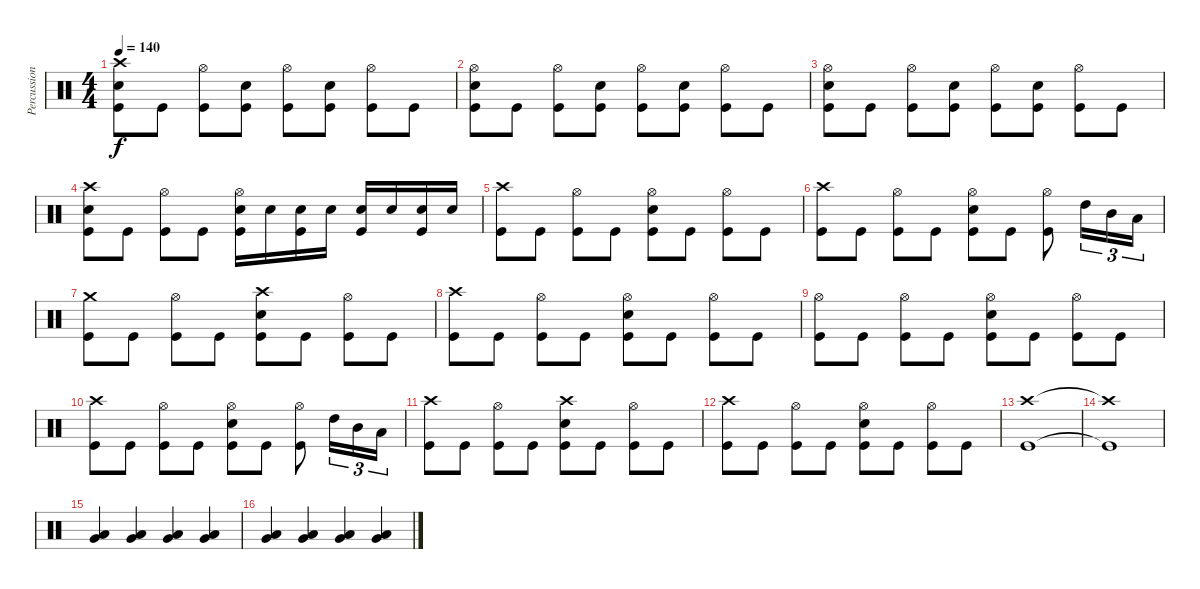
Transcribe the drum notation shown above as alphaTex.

\track ("Percussion" "Percussion") {instrument percussion}
\staff {score}
\articulation defaults
\ts (4 4)
\tempo 140
\clef neutral
\ks c
("Crash high (hit)" "Snare (hit) 2" "Kick (hit)").8{dy f} "Kick (hit)".8 ("Hi-Hat (open)" "Kick (hit)").8 ("Snare (hit) 2" "Kick (hit)").8 ("Hi-Hat (open)" "Kick (hit)").8 ("Snare (hit) 2" "Kick (hit)").8 ("Hi-Hat (open)" "Kick (hit)").8 "Kick (hit)".8 |
("Hi-Hat (open)" "Snare (hit) 2" "Kick (hit)").8 "Kick (hit)".8 ("Hi-Hat (open)" "Kick (hit)").8 ("Snare (hit) 2" "Kick (hit)").8 ("Hi-Hat (open)" "Kick (hit)").8 ("Snare (hit) 2" "Kick (hit)").8 ("Hi-Hat (open)" "Kick (hit)").8 "Kick (hit)".8 |
("Hi-Hat (open)" "Snare (hit) 2" "Kick (hit)").8 "Kick (hit)".8 ("Hi-Hat (open)" "Kick (hit)").8 ("Snare (hit) 2" "Kick (hit)").8 ("Hi-Hat (open)" "Kick (hit)").8 ("Snare (hit) 2" "Kick (hit)").8 ("Hi-Hat (open)" "Kick (hit)").8 "Kick (hit)".8 |
("Crash high (hit)" "Snare (hit) 2" "Kick (hit)").8 "Kick (hit)".8 ("Hi-Hat (open)" "Kick (hit)").8 "Kick (hit)".8 ("Hi-Hat (open)" "Snare (hit) 2" "Kick (hit)").16 "Snare (hit) 2".16 ("Snare (hit) 2" "Kick (hit)").16 "Snare (hit) 2".16 ("Snare (hit) 2" "Kick (hit)").16 "Snare (hit) 2".16 ("Snare (hit) 2" "Kick (hit)").16 "Snare (hit) 2".16 |
("Crash high (hit)" "Kick (hit)").8 "Kick (hit)".8 ("Hi-Hat (open)" "Kick (hit)").8 "Kick (hit)".8 ("Hi-Hat (open)" "Snare (hit) 2" "Kick (hit)").8 "Kick (hit)".8 ("Hi-Hat (open)" "Kick (hit)").8 "Kick (hit)".8 |
("Crash high (hit)" "Kick (hit)").8 "Kick (hit)".8 ("Hi-Hat (open)" "Kick (hit)").8 "Kick (hit)".8 ("Hi-Hat (open)" "Snare (hit) 2" "Kick (hit)").8 "Kick (hit)".8 ("Hi-Hat (open)" "Kick (hit)").8 "High Tom (hit)".16{tu (3 2)} "Mid Tom (hit)".16{tu (3 2)} "Low Tom (hit)".16{tu (3 2)} |
("Crash medium (hit)" "Kick (hit)").8 "Kick (hit)".8 ("Hi-Hat (open)" "Kick (hit)").8 "Kick (hit)".8 ("Crash high (hit)" "Snare (hit) 2" "Kick (hit)").8 "Kick (hit)".8 ("Hi-Hat (open)" "Kick (hit)").8 "Kick (hit)".8 |
("Crash high (hit)" "Kick (hit)").8 "Kick (hit)".8 ("Hi-Hat (open)" "Kick (hit)").8 "Kick (hit)".8 ("Hi-Hat (open)" "Snare (hit) 2" "Kick (hit)").8 "Kick (hit)".8 ("Hi-Hat (open)" "Kick (hit)").8 "Kick (hit)".8 |
("Hi-Hat (open)" "Kick (hit)").8 "Kick (hit)".8 ("Hi-Hat (open)" "Kick (hit)").8 "Kick (hit)".8 ("Hi-Hat (open)" "Snare (hit) 2" "Kick (hit)").8 "Kick (hit)".8 ("Hi-Hat (open)" "Kick (hit)").8 "Kick (hit)".8 |
("Crash high (hit)" "Kick (hit)").8 "Kick (hit)".8 ("Hi-Hat (open)" "Kick (hit)").8 "Kick (hit)".8 ("Hi-Hat (open)" "Snare (hit) 2" "Kick (hit)").8 "Kick (hit)".8 ("Hi-Hat (open)" "Kick (hit)").8 "High Tom (hit)".16{tu (3 2)} "Mid Tom (hit)".16{tu (3 2)} "Low Tom (hit)".16{tu (3 2)} |
("Crash high (hit)" "Kick (hit)").8 "Kick (hit)".8 ("Hi-Hat (open)" "Kick (hit)").8 "Kick (hit)".8 ("Crash high (hit)" "Snare (hit) 2" "Kick (hit)").8 "Kick (hit)".8 ("Hi-Hat (open)" "Kick (hit)").8 "Kick (hit)".8 |
("Crash high (hit)" "Kick (hit)").8 "Kick (hit)".8 ("Hi-Hat (open)" "Kick (hit)").8 "Kick (hit)".8 ("Hi-Hat (open)" "Snare (hit) 2" "Kick (hit)").8 "Kick (hit)".8 ("Hi-Hat (open)" "Kick (hit)").8 "Kick (hit)".8 |
("Crash high (hit)" "Kick (hit)").1 |
("Crash high (hit)"{t} "Kick (hit)"{t}).1 |
("Low Tom (hit)" "Very Low Tom (hit)").4 ("Low Tom (hit)" "Very Low Tom (hit)").4 ("Low Tom (hit)" "Very Low Tom (hit)").4 ("Low Tom (hit)" "Very Low Tom (hit)").4 |
("Low Tom (hit)" "Very Low Tom (hit)").4 ("Low Tom (hit)" "Very Low Tom (hit)").4 ("Low Tom (hit)" "Very Low Tom (hit)").4 ("Low Tom (hit)" "Very Low Tom (hit)").4
